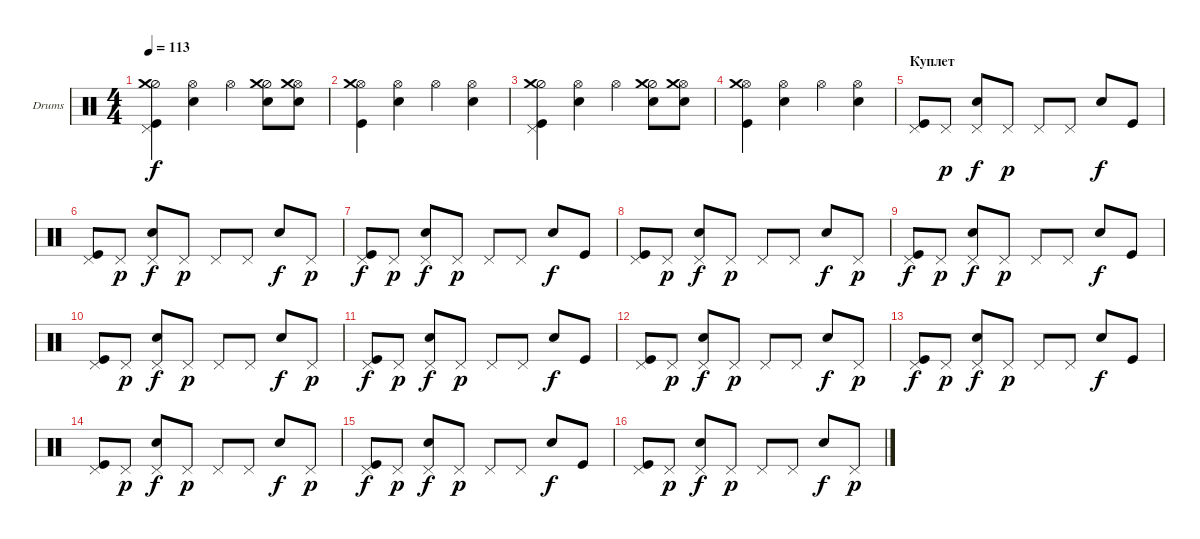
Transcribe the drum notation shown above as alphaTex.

\defaultSystemsLayout 4
\bracketExtendMode groupsimilarinstruments
\firstSystemTrackNameOrientation horizontal
\otherSystemsTrackNameOrientation horizontal
\track ("Е. Кулаков" "Drums") {instrument percussion}
\staff {score}
\articulation defaults
\ts (4 4)
\tempo 113
\clef neutral
\ks c
("Pedal Hi-Hat (hit)" "Kick (hit)" "Hi-Hat (half)" "Crash medium (hit)").4{dy f} ("Snare (hit) 2" "Hi-Hat (open)").4 "Hi-Hat (open)".4 ("Snare (hit) 2" "Hi-Hat (half)" "Crash medium (hit)").8 ("Hi-Hat (open)" "Snare (hit) 2" "Crash medium (hit)").8 |
("Hi-Hat (open)" "Kick (hit)" "Crash medium (hit)").4 ("Hi-Hat (open)" "Snare (hit) 2").4 "Hi-Hat (open)".4 ("Snare (hit) 2" "Hi-Hat (open)").4 |
("Pedal Hi-Hat (hit)" "Kick (hit)" "Hi-Hat (half)" "Crash medium (hit)").4 ("Snare (hit) 2" "Hi-Hat (open)").4 "Hi-Hat (open)".4 ("Snare (hit) 2" "Hi-Hat (half)" "Crash medium (hit)").8 ("Hi-Hat (open)" "Snare (hit) 2" "Crash medium (hit)").8 |
("Hi-Hat (open)" "Kick (hit)" "Crash medium (hit)").4 ("Hi-Hat (open)" "Snare (hit) 2").4 "Hi-Hat (open)".4 ("Snare (hit) 2" "Hi-Hat (open)").4 |
\section ("" "Куплет")
("Kick (hit)" "Pedal Hi-Hat (hit)").8 "Pedal Hi-Hat (hit)".8{dy p} ("Snare (hit) 2" "Pedal Hi-Hat (hit)").8{dy f} "Pedal Hi-Hat (hit)".8{dy p} "Pedal Hi-Hat (hit)".8 "Pedal Hi-Hat (hit)".8 "Snare (hit) 2".8{dy f} "Kick (hit)".8 |
("Kick (hit)" "Pedal Hi-Hat (hit)").8 "Pedal Hi-Hat (hit)".8{dy p} ("Snare (hit) 2" "Pedal Hi-Hat (hit)").8{dy f} "Pedal Hi-Hat (hit)".8{dy p} "Pedal Hi-Hat (hit)".8 "Pedal Hi-Hat (hit)".8 "Snare (hit) 2".8{dy f} "Pedal Hi-Hat (hit)".8{dy p} |
("Kick (hit)" "Pedal Hi-Hat (hit)").8{dy f} "Pedal Hi-Hat (hit)".8{dy p} ("Snare (hit) 2" "Pedal Hi-Hat (hit)").8{dy f} "Pedal Hi-Hat (hit)".8{dy p} "Pedal Hi-Hat (hit)".8 "Pedal Hi-Hat (hit)".8 "Snare (hit) 2".8{dy f} "Kick (hit)".8 |
("Kick (hit)" "Pedal Hi-Hat (hit)").8 "Pedal Hi-Hat (hit)".8{dy p} ("Snare (hit) 2" "Pedal Hi-Hat (hit)").8{dy f} "Pedal Hi-Hat (hit)".8{dy p} "Pedal Hi-Hat (hit)".8 "Pedal Hi-Hat (hit)".8 "Snare (hit) 2".8{dy f} "Pedal Hi-Hat (hit)".8{dy p} |
("Kick (hit)" "Pedal Hi-Hat (hit)").8{dy f} "Pedal Hi-Hat (hit)".8{dy p} ("Snare (hit) 2" "Pedal Hi-Hat (hit)").8{dy f} "Pedal Hi-Hat (hit)".8{dy p} "Pedal Hi-Hat (hit)".8 "Pedal Hi-Hat (hit)".8 "Snare (hit) 2".8{dy f} "Kick (hit)".8 |
("Kick (hit)" "Pedal Hi-Hat (hit)").8 "Pedal Hi-Hat (hit)".8{dy p} ("Snare (hit) 2" "Pedal Hi-Hat (hit)").8{dy f} "Pedal Hi-Hat (hit)".8{dy p} "Pedal Hi-Hat (hit)".8 "Pedal Hi-Hat (hit)".8 "Snare (hit) 2".8{dy f} "Pedal Hi-Hat (hit)".8{dy p} |
("Kick (hit)" "Pedal Hi-Hat (hit)").8{dy f} "Pedal Hi-Hat (hit)".8{dy p} ("Snare (hit) 2" "Pedal Hi-Hat (hit)").8{dy f} "Pedal Hi-Hat (hit)".8{dy p} "Pedal Hi-Hat (hit)".8 "Pedal Hi-Hat (hit)".8 "Snare (hit) 2".8{dy f} "Kick (hit)".8 |
("Kick (hit)" "Pedal Hi-Hat (hit)").8 "Pedal Hi-Hat (hit)".8{dy p} ("Snare (hit) 2" "Pedal Hi-Hat (hit)").8{dy f} "Pedal Hi-Hat (hit)".8{dy p} "Pedal Hi-Hat (hit)".8 "Pedal Hi-Hat (hit)".8 "Snare (hit) 2".8{dy f} "Pedal Hi-Hat (hit)".8{dy p} |
("Kick (hit)" "Pedal Hi-Hat (hit)").8{dy f} "Pedal Hi-Hat (hit)".8{dy p} ("Snare (hit) 2" "Pedal Hi-Hat (hit)").8{dy f} "Pedal Hi-Hat (hit)".8{dy p} "Pedal Hi-Hat (hit)".8 "Pedal Hi-Hat (hit)".8 "Snare (hit) 2".8{dy f} "Kick (hit)".8 |
("Kick (hit)" "Pedal Hi-Hat (hit)").8 "Pedal Hi-Hat (hit)".8{dy p} ("Snare (hit) 2" "Pedal Hi-Hat (hit)").8{dy f} "Pedal Hi-Hat (hit)".8{dy p} "Pedal Hi-Hat (hit)".8 "Pedal Hi-Hat (hit)".8 "Snare (hit) 2".8{dy f} "Pedal Hi-Hat (hit)".8{dy p} |
("Kick (hit)" "Pedal Hi-Hat (hit)").8{dy f} "Pedal Hi-Hat (hit)".8{dy p} ("Snare (hit) 2" "Pedal Hi-Hat (hit)").8{dy f} "Pedal Hi-Hat (hit)".8{dy p} "Pedal Hi-Hat (hit)".8 "Pedal Hi-Hat (hit)".8 "Snare (hit) 2".8{dy f} "Kick (hit)".8 |
("Kick (hit)" "Pedal Hi-Hat (hit)").8 "Pedal Hi-Hat (hit)".8{dy p} ("Snare (hit) 2" "Pedal Hi-Hat (hit)").8{dy f} "Pedal Hi-Hat (hit)".8{dy p} "Pedal Hi-Hat (hit)".8 "Pedal Hi-Hat (hit)".8 "Snare (hit) 2".8{dy f} "Pedal Hi-Hat (hit)".8{dy p}
